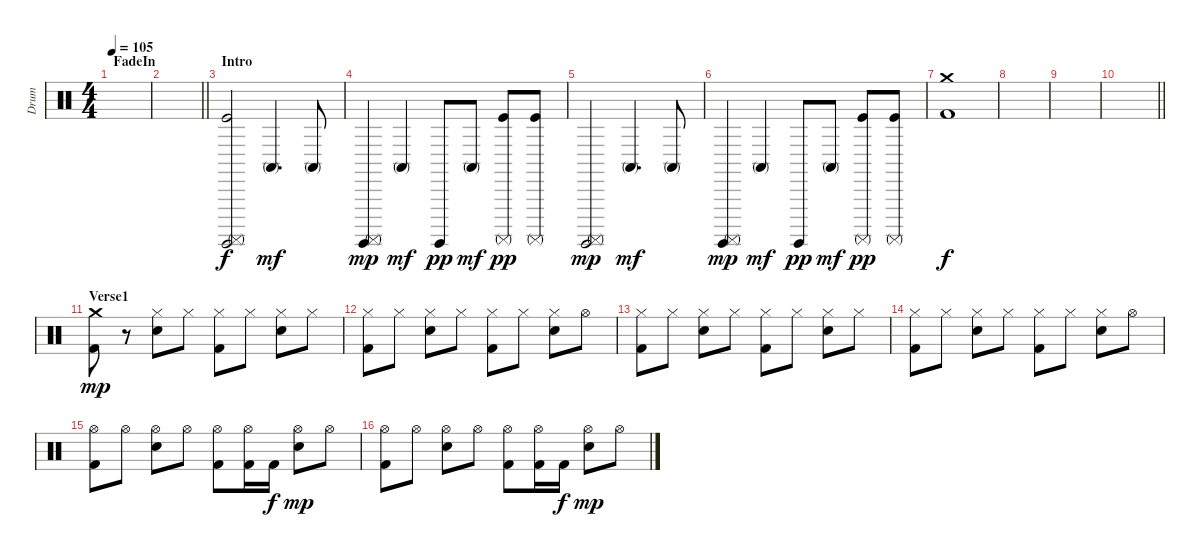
\track ("Drum" "Drum") {instrument percussion}
\staff {score}
\articulation defaults
\ts (4 4)
\section ("" "FadeIn")
\tempo 105
\clef neutral
\ks c
|
\barLineRight lightlight
|
\section ("" "Intro")
("Kick (hit)" "Surdo (mute)" "Surdo (hit)").2 "Conga high (mute)".4{d dy mf} "Conga high (mute)".8 |
("Surdo (mute)" "Surdo (hit)").4{dy mp} "Conga high (mute)".4{dy mf} "Surdo (hit)".8{dy pp} "Conga high (mute)".8{dy mf} ("Kick (hit)" "Surdo (mute)").8{dy pp} ("Kick (hit)" "Surdo (mute)").8 |
("Surdo (mute)" "Surdo (hit)").2{dy mp} "Conga high (mute)".4{d dy mf} "Conga high (mute)".8 |
("Surdo (mute)" "Surdo (hit)").4{dy mp} "Conga high (mute)".4{dy mf} "Surdo (hit)".8{dy pp} "Conga high (mute)".8{dy mf} ("Kick (hit)" "Surdo (mute)").8{dy pp} ("Kick (hit)" "Surdo (mute)").8 |
("Crash medium (hit)" "Kick (hit) 2").1{dy f} |
|
|
\barLineRight lightlight
|
\section ("" "Verse1")
("Crash medium (hit)" "Kick (hit) 2").8{dy mp} r.8 ("Hi-Hat (closed)" "Electric Snare (hit)").8 "Hi-Hat (closed)".8 ("Hi-Hat (closed)" "Kick (hit) 2").8 "Hi-Hat (closed)".8 ("Hi-Hat (closed)" "Electric Snare (hit)").8 "Hi-Hat (closed)".8 |
("Hi-Hat (closed)" "Kick (hit) 2").8 "Hi-Hat (closed)".8 ("Hi-Hat (closed)" "Electric Snare (hit)").8 "Hi-Hat (closed)".8 ("Hi-Hat (closed)" "Kick (hit) 2").8 "Hi-Hat (closed)".8 ("Hi-Hat (closed)" "Electric Snare (hit)").8 "Hi-Hat (open)".8 |
("Hi-Hat (closed)" "Kick (hit) 2").8 "Hi-Hat (closed)".8 ("Hi-Hat (closed)" "Electric Snare (hit)").8 "Hi-Hat (closed)".8 ("Hi-Hat (closed)" "Kick (hit) 2").8 "Hi-Hat (closed)".8 ("Hi-Hat (closed)" "Electric Snare (hit)").8 "Hi-Hat (closed)".8 |
("Hi-Hat (closed)" "Kick (hit) 2").8 "Hi-Hat (closed)".8 ("Hi-Hat (closed)" "Electric Snare (hit)").8 "Hi-Hat (closed)".8 ("Hi-Hat (closed)" "Kick (hit) 2").8 "Hi-Hat (closed)".8 ("Hi-Hat (closed)" "Electric Snare (hit)").8 "Hi-Hat (open)".8 |
("Hi-Hat (open)" "Kick (hit) 2").8 "Hi-Hat (open)".8 ("Hi-Hat (open)" "Electric Snare (hit)").8 "Hi-Hat (open)".8 ("Hi-Hat (open)" "Kick (hit) 2").8 ("Hi-Hat (open)" "Kick (hit) 2").16 "Kick (hit) 2".16{dy f} ("Hi-Hat (open)" "Electric Snare (hit)").8{dy mp} "Hi-Hat (open)".8 |
("Hi-Hat (open)" "Kick (hit) 2").8 "Hi-Hat (open)".8 ("Hi-Hat (open)" "Electric Snare (hit)").8 "Hi-Hat (open)".8 ("Hi-Hat (open)" "Kick (hit) 2").8 ("Hi-Hat (open)" "Kick (hit) 2").16 "Kick (hit) 2".16{dy f} ("Hi-Hat (open)" "Electric Snare (hit)").8{dy mp} "Hi-Hat (open)".8
